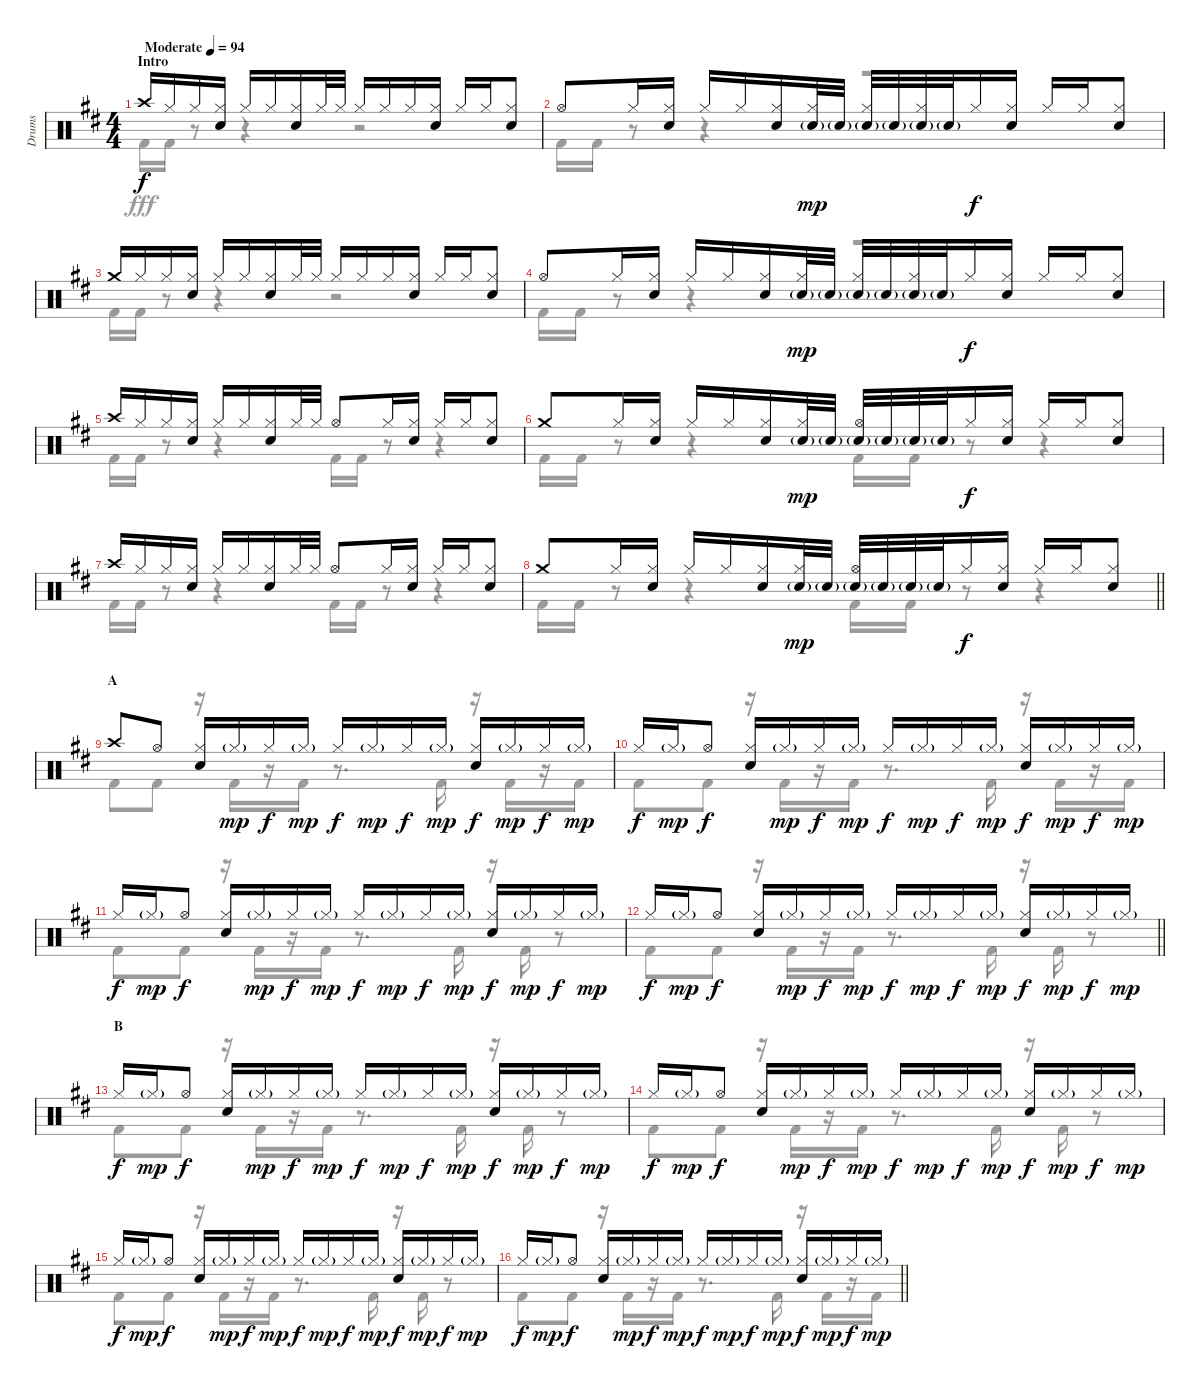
\track ("Drums" "Drums") {instrument percussion}
\staff {score}
\articulation defaults
\voice
\ts (4 4)
\section ("" "Intro")
\tempo (94 "Moderate")
\clef neutral
\ks d "Crash high (hit)".16{dy f} "Hi-Hat (closed)".16 "Hi-Hat (closed)".16
("Hi-Hat (closed)" "Snare (hit) 2").16 "Hi-Hat (closed)".16 "Hi-Hat (closed)".16 ("Hi-Hat (closed)" "Snare (hit) 2").16 "Hi-Hat (closed)".32 "Hi-Hat (closed)".32 "Hi-Hat (closed)".16 "Hi-Hat (closed)".16 "Hi-Hat (closed)".16 ("Hi-Hat (closed)" "Snare (hit) 2").16 "Hi-Hat (closed)".16 "Hi-Hat (closed)".16 ("Hi-Hat (closed)" "Snare (hit) 2").8 |
"Hi-Hat (open)".8 "Hi-Hat (closed)".16 ("Hi-Hat (closed)" "Snare (hit) 2").16 "Hi-Hat (closed)".16 "Hi-Hat (closed)".16 ("Hi-Hat (closed)" "Snare (hit) 2").16 ("Hi-Hat (closed)" "Snare (hit) 2"{g}).32{dy mp} "Snare (hit) 2"{g}.32 ("Hi-Hat (closed)" "Snare (hit) 2"{g}).32 "Snare (hit) 2"{g}.32 ("Hi-Hat (closed)" "Snare (hit) 2"{g}).32 "Snare (hit) 2"{g}.32 "Hi-Hat (closed)".16{dy f} ("Hi-Hat (closed)" "Snare (hit) 2").16 "Hi-Hat (closed)".16 "Hi-Hat (closed)".16 ("Hi-Hat (closed)" "Snare (hit) 2").8 |
"Crash medium (hit)".16 "Hi-Hat (closed)".16 "Hi-Hat (closed)".16 ("Hi-Hat (closed)" "Snare (hit) 2").16 "Hi-Hat (closed)".16 "Hi-Hat (closed)".16 ("Hi-Hat (closed)" "Snare (hit) 2").16 "Hi-Hat (closed)".32 "Hi-Hat (closed)".32 "Hi-Hat (closed)".16 "Hi-Hat (closed)".16 "Hi-Hat (closed)".16 ("Hi-Hat (closed)" "Snare (hit) 2").16 "Hi-Hat (closed)".16 "Hi-Hat (closed)".16 ("Hi-Hat (closed)" "Snare (hit) 2").8 |
"Hi-Hat (open)".8 "Hi-Hat (closed)".16 ("Hi-Hat (closed)" "Snare (hit) 2").16 "Hi-Hat (closed)".16 "Hi-Hat (closed)".16 ("Hi-Hat (closed)" "Snare (hit) 2").16 ("Hi-Hat (closed)" "Snare (hit) 2"{g}).32{dy mp} "Snare (hit) 2"{g}.32 ("Hi-Hat (closed)" "Snare (hit) 2"{g}).32 "Snare (hit) 2"{g}.32 ("Hi-Hat (closed)" "Snare (hit) 2"{g}).32 "Snare (hit) 2"{g}.32 "Hi-Hat (closed)".16{dy f} ("Hi-Hat (closed)" "Snare (hit) 2").16 "Hi-Hat (closed)".16 "Hi-Hat (closed)".16 ("Hi-Hat (closed)" "Snare (hit) 2").8 |
"Crash high (hit)".16 "Hi-Hat (closed)".16 "Hi-Hat (closed)".16 ("Hi-Hat (closed)" "Snare (hit) 2").16 "Hi-Hat (closed)".16 "Hi-Hat (closed)".16 ("Hi-Hat (closed)" "Snare (hit) 2").16 "Hi-Hat (closed)".32 "Hi-Hat (closed)".32 "Hi-Hat (open)".8 "Hi-Hat (closed)".16 ("Hi-Hat (closed)" "Snare (hit) 2").16 "Hi-Hat (closed)".16 "Hi-Hat (closed)".16 ("Hi-Hat (closed)" "Snare (hit) 2").8 |
"Crash medium (hit)".8 "Hi-Hat (closed)".16 ("Hi-Hat (closed)" "Snare (hit) 2").16 "Hi-Hat (closed)".16 "Hi-Hat (closed)".16 ("Hi-Hat (closed)" "Snare (hit) 2").16 ("Hi-Hat (closed)" "Snare (hit) 2"{g}).32{dy mp} "Snare (hit) 2"{g}.32 ("Hi-Hat (open)" "Snare (hit) 2"{g}).32 "Snare (hit) 2"{g}.32 "Snare (hit) 2"{g}.32 "Snare (hit) 2"{g}.32 "Hi-Hat (closed)".16{dy f} ("Hi-Hat (closed)" "Snare (hit) 2").16 "Hi-Hat (closed)".16 "Hi-Hat (closed)".16 ("Hi-Hat (closed)" "Snare (hit) 2").8 |
"Crash high (hit)".16 "Hi-Hat (closed)".16 "Hi-Hat (closed)".16 ("Hi-Hat (closed)" "Snare (hit) 2").16 "Hi-Hat (closed)".16 "Hi-Hat (closed)".16 ("Hi-Hat (closed)" "Snare (hit) 2").16 "Hi-Hat (closed)".32 "Hi-Hat (closed)".32 "Hi-Hat (open)".8 "Hi-Hat (closed)".16 ("Hi-Hat (closed)" "Snare (hit) 2").16 "Hi-Hat (closed)".16 "Hi-Hat (closed)".16 ("Hi-Hat (closed)" "Snare (hit) 2").8 |
\barLineRight lightlight "Crash medium (hit)".8 "Hi-Hat (closed)".16
("Hi-Hat (closed)" "Snare (hit) 2").16 "Hi-Hat (closed)".16 "Hi-Hat (closed)".16 ("Hi-Hat (closed)" "Snare (hit) 2").16 ("Hi-Hat (closed)" "Snare (hit) 2"{g}).32{dy mp} "Snare (hit) 2"{g}.32 ("Hi-Hat (open)" "Snare (hit) 2"{g}).32 "Snare (hit) 2"{g}.32 "Snare (hit) 2"{g}.32 "Snare (hit) 2"{g}.32 "Hi-Hat (closed)".16{dy f} ("Hi-Hat (closed)" "Snare (hit) 2").16 "Hi-Hat (closed)".16 "Hi-Hat (closed)".16 ("Hi-Hat (closed)" "Snare (hit) 2").8 |
\section ("" "A")
"Crash high (hit)".8 "Hi-Hat (open)".8 ("Hi-Hat (closed)" "Snare (hit) 2").16 "Hi-Hat (closed)"{g}.16{dy mp} "Hi-Hat (closed)".16{dy f} "Hi-Hat (closed)"{g}.16{dy mp} "Hi-Hat (closed)".16{dy f} "Hi-Hat (closed)"{g}.16{dy mp} "Hi-Hat (closed)".16{dy f} "Hi-Hat (closed)"{g}.16{dy mp} ("Hi-Hat (closed)" "Snare (hit) 2").16{dy f} "Hi-Hat (closed)"{g}.16{dy mp} "Hi-Hat (closed)".16{dy f} "Hi-Hat (closed)"{g}.16{dy mp} |
"Hi-Hat (closed)".16{dy f} "Hi-Hat (closed)"{g}.16{dy mp} "Hi-Hat (open)".8{dy f} ("Hi-Hat (closed)" "Snare (hit) 2").16 "Hi-Hat (closed)"{g}.16{dy mp} "Hi-Hat (closed)".16{dy f} "Hi-Hat (closed)"{g}.16{dy mp} "Hi-Hat (closed)".16{dy f} "Hi-Hat (closed)"{g}.16{dy mp} "Hi-Hat (closed)".16{dy f} "Hi-Hat (closed)"{g}.16{dy mp} ("Hi-Hat (closed)" "Snare (hit) 2").16{dy f} "Hi-Hat (closed)"{g}.16{dy mp} "Hi-Hat (closed)".16{dy f} "Hi-Hat (closed)"{g}.16{dy mp} |
"Hi-Hat (closed)".16{dy f} "Hi-Hat (closed)"{g}.16{dy mp} "Hi-Hat (open)".8{dy f} ("Hi-Hat (closed)" "Snare (hit) 2").16 "Hi-Hat (closed)"{g}.16{dy mp} "Hi-Hat (closed)".16{dy f} "Hi-Hat (closed)"{g}.16{dy mp} "Hi-Hat (closed)".16{dy f} "Hi-Hat (closed)"{g}.16{dy mp} "Hi-Hat (closed)".16{dy f} "Hi-Hat (closed)"{g}.16{dy mp} ("Hi-Hat (closed)" "Snare (hit) 2").16{dy f} "Hi-Hat (closed)"{g}.16{dy mp} "Hi-Hat (closed)".16{dy f} "Hi-Hat (closed)"{g}.16{dy mp} |
\barLineRight lightlight "Hi-Hat (closed)".16{dy f} "Hi-Hat (closed)"{g}.16{dy mp} "Hi-Hat (open)".8{dy f}
("Hi-Hat (closed)" "Snare (hit) 2").16 "Hi-Hat (closed)"{g}.16{dy mp} "Hi-Hat (closed)".16{dy f} "Hi-Hat (closed)"{g}.16{dy mp} "Hi-Hat (closed)".16{dy f} "Hi-Hat (closed)"{g}.16{dy mp} "Hi-Hat (closed)".16{dy f} "Hi-Hat (closed)"{g}.16{dy mp} ("Hi-Hat (closed)" "Snare (hit) 2").16{dy f} "Hi-Hat (closed)"{g}.16{dy mp} "Hi-Hat (closed)".16{dy f} "Hi-Hat (closed)"{g}.16{dy mp} |
\section ("" "B")
"Hi-Hat (closed)".16{dy f} "Hi-Hat (closed)"{g}.16{dy mp} "Hi-Hat (open)".8{dy f} ("Hi-Hat (closed)" "Snare (hit) 2").16 "Hi-Hat (closed)"{g}.16{dy mp} "Hi-Hat (closed)".16{dy f} "Hi-Hat (closed)"{g}.16{dy mp} "Hi-Hat (closed)".16{dy f} "Hi-Hat (closed)"{g}.16{dy mp} "Hi-Hat (closed)".16{dy f} "Hi-Hat (closed)"{g}.16{dy mp} ("Hi-Hat (closed)" "Snare (hit) 2").16{dy f} "Hi-Hat (closed)"{g}.16{dy mp} "Hi-Hat (closed)".16{dy f} "Hi-Hat (closed)"{g}.16{dy mp} |
"Hi-Hat (closed)".16{dy f} "Hi-Hat (closed)"{g}.16{dy mp} "Hi-Hat (open)".8{dy f} ("Hi-Hat (closed)" "Snare (hit) 2").16 "Hi-Hat (closed)"{g}.16{dy mp} "Hi-Hat (closed)".16{dy f} "Hi-Hat (closed)"{g}.16{dy mp} "Hi-Hat (closed)".16{dy f} "Hi-Hat (closed)"{g}.16{dy mp} "Hi-Hat (closed)".16{dy f} "Hi-Hat (closed)"{g}.16{dy mp} ("Hi-Hat (closed)" "Snare (hit) 2").16{dy f} "Hi-Hat (closed)"{g}.16{dy mp} "Hi-Hat (closed)".16{dy f} "Hi-Hat (closed)"{g}.16{dy mp} |
"Hi-Hat (closed)".16{dy f} "Hi-Hat (closed)"{g}.16{dy mp} "Hi-Hat (open)".8{dy f} ("Hi-Hat (closed)" "Snare (hit) 2").16 "Hi-Hat (closed)"{g}.16{dy mp} "Hi-Hat (closed)".16{dy f} "Hi-Hat (closed)"{g}.16{dy mp} "Hi-Hat (closed)".16{dy f} "Hi-Hat (closed)"{g}.16{dy mp} "Hi-Hat (closed)".16{dy f} "Hi-Hat (closed)"{g}.16{dy mp} ("Hi-Hat (closed)" "Snare (hit) 2").16{dy f} "Hi-Hat (closed)"{g}.16{dy mp} "Hi-Hat (closed)".16{dy f} "Hi-Hat (closed)"{g}.16{dy mp} |
\barLineRight lightlight "Hi-Hat (closed)".16{dy f} "Hi-Hat (closed)"{g}.16{dy mp} "Hi-Hat (open)".8{dy f}
("Hi-Hat (closed)" "Snare (hit) 2").16 "Hi-Hat (closed)"{g}.16{dy mp} "Hi-Hat (closed)".16{dy f} "Hi-Hat (closed)"{g}.16{dy mp} "Hi-Hat (closed)".16{dy f} "Hi-Hat (closed)"{g}.16{dy mp} "Hi-Hat (closed)".16{dy f} "Hi-Hat (closed)"{g}.16{dy mp} ("Hi-Hat (closed)" "Snare (hit) 2").16{dy f} "Hi-Hat (closed)"{g}.16{dy mp} "Hi-Hat (closed)".16{dy f} "Hi-Hat (closed)"{g}.16{dy mp}
\voice
\clef neutral
\ottava regular
\simile none
\ks d "Kick (hit) 2".16{dy fff} "Kick (hit) 2".16
r.8 r.4 r.2 |
"Kick (hit) 2".16 "Kick (hit) 2".16 r.8 r.4 r.2 |
"Kick (hit) 2".16 "Kick (hit) 2".16 r.8 r.4 r.2 |
"Kick (hit) 2".16 "Kick (hit) 2".16 r.8 r.4 r.2 |
"Kick (hit) 2".16 "Kick (hit) 2".16 r.8 r.4 "Kick (hit) 2".16 "Kick (hit) 2".16 r.8 r.4 |
"Kick (hit) 2".16 "Kick (hit) 2".16 r.8 r.4 "Kick (hit) 2".16 "Kick (hit) 2".16 r.8 r.4 |
"Kick (hit) 2".16 "Kick (hit) 2".16 r.8 r.4 "Kick (hit) 2".16 "Kick (hit) 2".16 r.8 r.4 |
\barLineRight lightlight "Kick (hit) 2".16 "Kick (hit) 2".16
r.8 r.4 "Kick (hit) 2".16 "Kick (hit) 2".16 r.8 r.4 |
"Kick (hit) 2".8 "Kick (hit) 2".8 r.16 "Kick (hit) 2".16 r.16 "Kick (hit) 2".16 r.8{d} "Kick (hit) 2".16 r.16 "Kick (hit) 2".16 r.16 "Kick (hit) 2".16 |
"Kick (hit) 2".8 "Kick (hit) 2".8 r.16 "Kick (hit) 2".16 r.16 "Kick (hit) 2".16 r.8{d} "Kick (hit) 2".16 r.16 "Kick (hit) 2".16 r.16 "Kick (hit) 2".16 |
"Kick (hit) 2".8 "Kick (hit) 2".8 r.16 "Kick (hit) 2".16 r.16 "Kick (hit) 2".16 r.8{d} "Kick (hit) 2".16 r.16 "Kick (hit) 2".16 r.8 |
\barLineRight lightlight "Kick (hit) 2".8 "Kick (hit) 2".8
r.16 "Kick (hit) 2".16 r.16 "Kick (hit) 2".16 r.8{d} "Kick (hit) 2".16 r.16 "Kick (hit) 2".16 r.8 |
"Kick (hit) 2".8 "Kick (hit) 2".8 r.16 "Kick (hit) 2".16 r.16 "Kick (hit) 2".16 r.8{d} "Kick (hit) 2".16 r.16 "Kick (hit) 2".16 r.8 |
"Kick (hit) 2".8 "Kick (hit) 2".8 r.16 "Kick (hit) 2".16 r.16 "Kick (hit) 2".16 r.8{d} "Kick (hit) 2".16 r.16 "Kick (hit) 2".16 r.8 |
"Kick (hit) 2".8 "Kick (hit) 2".8 r.16 "Kick (hit) 2".16 r.16 "Kick (hit) 2".16 r.8{d} "Kick (hit) 2".16 r.16 "Kick (hit) 2".16 r.8 |
\barLineRight lightlight "Kick (hit) 2".8 "Kick (hit) 2".8
r.16 "Kick (hit) 2".16 r.16 "Kick (hit) 2".16 r.8{d} "Kick (hit) 2".16 r.16 "Kick (hit) 2".16 r.16 "Kick (hit) 2".16
